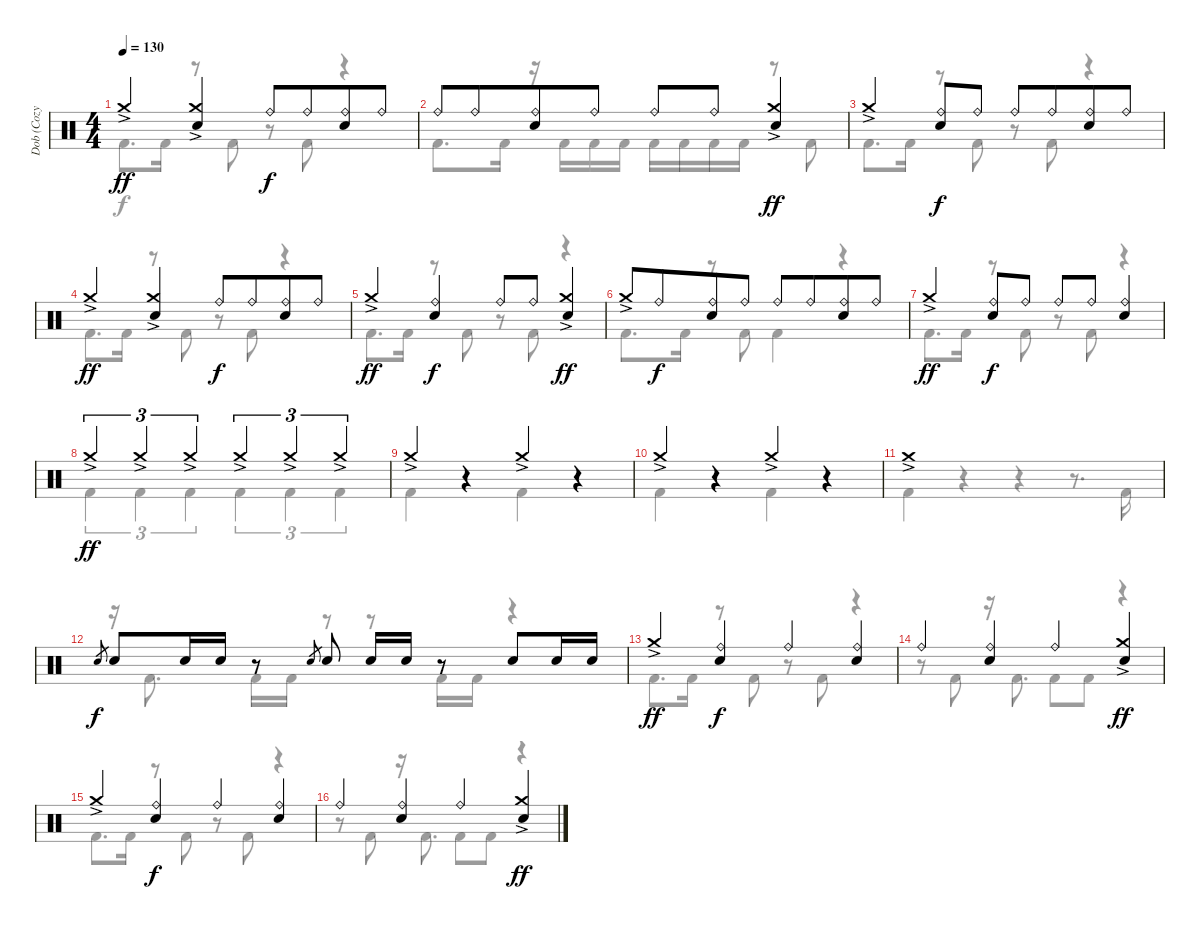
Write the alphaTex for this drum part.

\track ("Dob (Cozy Powell)" "Dob (Cozy ") {instrument percussion}
\staff {score}
\articulation defaults
\voice
\ts (4 4)
\tempo 130
\clef neutral
\ks c "Crash medium (hit)"{ac}.4{dy ff}
("Crash medium (hit)"{ac} "Electric Snare (hit)").4 "Ride (bell)".8{dy f} "Ride (bell)".8{beam merge} ("Ride (bell)" "Electric Snare (hit)").8 "Ride (bell)".8 |
"Ride (bell)".8 "Ride (bell)".8{beam merge} ("Ride (bell)" "Electric Snare (hit)").8 "Ride (bell)".8 "Ride (bell)".8 "Ride (bell)".8 ("Crash medium (hit)"{ac} "Electric Snare (hit)").4{dy ff} |
"Crash medium (hit)"{ac}.4{beam merge} ("Ride (bell)" "Electric Snare (hit)").8{dy f} "Ride (bell)".8 "Ride (bell)".8 "Ride (bell)".8{beam merge} ("Ride (bell)" "Electric Snare (hit)").8 "Ride (bell)".8 |
"Crash medium (hit)"{ac}.4{dy ff} ("Crash medium (hit)"{ac} "Electric Snare (hit)").4 "Ride (bell)".8{dy f} "Ride (bell)".8{beam merge} ("Ride (bell)" "Electric Snare (hit)").8 "Ride (bell)".8 |
"Crash medium (hit)"{ac}.4{dy ff beam merge} ("Ride (bell)" "Electric Snare (hit)").4{dy f} "Ride (bell)".8 "Ride (bell)".8 ("Crash medium (hit)"{ac} "Electric Snare (hit)").4{dy ff} |
"Crash medium (hit)"{ac}.8 "Ride (bell)".8{dy f beam merge} ("Ride (bell)" "Electric Snare (hit)").8 "Ride (bell)".8 "Ride (bell)".8 "Ride (bell)".8{beam merge} ("Ride (bell)" "Electric Snare (hit)").8 "Ride (bell)".8 |
"Crash medium (hit)"{ac}.4{dy ff beam merge} ("Ride (bell)" "Electric Snare (hit)").8{dy f} "Ride (bell)".8 "Ride (bell)".8 "Ride (bell)".8{beam merge} ("Ride (bell)" "Electric Snare (hit)").4 |
"Crash medium (hit)"{ac}.4{tu (3 2) dy ff} "Crash medium (hit)"{ac}.4{tu (3 2)} "Crash medium (hit)"{ac}.4{tu (3 2)} "Crash medium (hit)"{ac}.4{tu (3 2)} "Crash medium (hit)"{ac}.4{tu (3 2)} "Crash medium (hit)"{ac}.4{tu (3 2)} |
"Crash medium (hit)"{ac}.4 r.4 "Crash medium (hit)"{ac}.4 r.4 |
"Crash medium (hit)"{ac}.4 r.4 "Crash medium (hit)"{ac}.4 r.4 |
"Crash medium (hit)"{ac}.1 |
"Electric Snare (hit)".8{gr dy f} "Electric Snare (hit)".8 "Electric Snare (hit)".16 "Electric Snare (hit)".16 r.8 "Electric Snare (hit)".8{gr} "Electric Snare (hit)".8 "Electric Snare (hit)".16 "Electric Snare (hit)".16 r.8 "Electric Snare (hit)".8 "Electric Snare (hit)".16 "Electric Snare (hit)".16 |
"Crash medium (hit)"{ac}.4{dy ff} ("Ride (bell)" "Electric Snare (hit)").4{dy f} "Ride (bell)".4 ("Ride (bell)" "Electric Snare (hit)").4 |
"Ride (bell)".4 ("Ride (bell)" "Electric Snare (hit)").4 "Ride (bell)".4 ("Crash medium (hit)"{ac} "Electric Snare (hit)").4{dy ff} |
"Crash medium (hit)"{ac}.4 ("Ride (bell)" "Electric Snare (hit)").4{dy f} "Ride (bell)".4 ("Ride (bell)" "Electric Snare (hit)").4 |
"Ride (bell)".4 ("Ride (bell)" "Electric Snare (hit)").4 "Ride (bell)".4 ("Crash medium (hit)"{ac} "Electric Snare (hit)").4{dy ff}
\voice
\clef neutral
\ottava regular
\simile none
\ks c "Kick (hit) 2".8{d dy f} "Kick (hit) 2".16
r.8 "Kick (hit) 2".8 r.8 "Kick (hit) 2".8 r.4 |
"Kick (hit) 2".8{d} "Kick (hit) 2".16 r.16 "Kick (hit) 2".16 "Kick (hit) 2".16 "Kick (hit) 2".16 "Kick (hit) 2".16 "Kick (hit) 2".16 "Kick (hit) 2".16 "Kick (hit) 2".16 r.8 "Kick (hit) 2".8 |
"Kick (hit) 2".8{d} "Kick (hit) 2".16 r.8 "Kick (hit) 2".8 r.8 "Kick (hit) 2".8 r.4 |
"Kick (hit) 2".8{d} "Kick (hit) 2".16 r.8 "Kick (hit) 2".8 r.8 "Kick (hit) 2".8 r.4 |
"Kick (hit) 2".8{d} "Kick (hit) 2".16 r.8 "Kick (hit) 2".8 r.8 "Kick (hit) 2".8 r.4 |
"Kick (hit) 2".8{d} "Kick (hit) 2".16 r.8 "Kick (hit) 2".8 "Kick (hit) 2".4 r.4 |
"Kick (hit) 2".8{d} "Kick (hit) 2".16 r.8 "Kick (hit) 2".8 r.8 "Kick (hit) 2".8 r.4 |
"Kick (hit) 2".4{tu (3 2)} "Kick (hit) 2".4{tu (3 2)} "Kick (hit) 2".4{tu (3 2)} "Kick (hit) 2".4{tu (3 2)} "Kick (hit) 2".4{tu (3 2)} "Kick (hit) 2".4{tu (3 2)} |
"Kick (hit) 2".4 r.4 "Kick (hit) 2".4 r.4 |
"Kick (hit) 2".4 r.4 "Kick (hit) 2".4 r.4 |
"Kick (hit) 2".4 r.4 r.4 r.8{d} "Kick (hit) 2".16 |
r.16 "Kick (hit) 2".8{d} "Kick (hit) 2".16 "Kick (hit) 2".16 r.8 r.8 "Kick (hit) 2".16 "Kick (hit) 2".16 r.4 |
"Kick (hit) 2".8{d} "Kick (hit) 2".16 r.8 "Kick (hit) 2".8 r.8 "Kick (hit) 2".8 r.4 |
r.8 "Kick (hit) 2".8 r.16 "Kick (hit) 2".8{d} "Kick (hit) 2".8 "Kick (hit) 2".8 r.4 |
"Kick (hit) 2".8{d} "Kick (hit) 2".16 r.8 "Kick (hit) 2".8 r.8 "Kick (hit) 2".8 r.4 |
r.8 "Kick (hit) 2".8 r.16 "Kick (hit) 2".8{d} "Kick (hit) 2".8 "Kick (hit) 2".8 r.4
